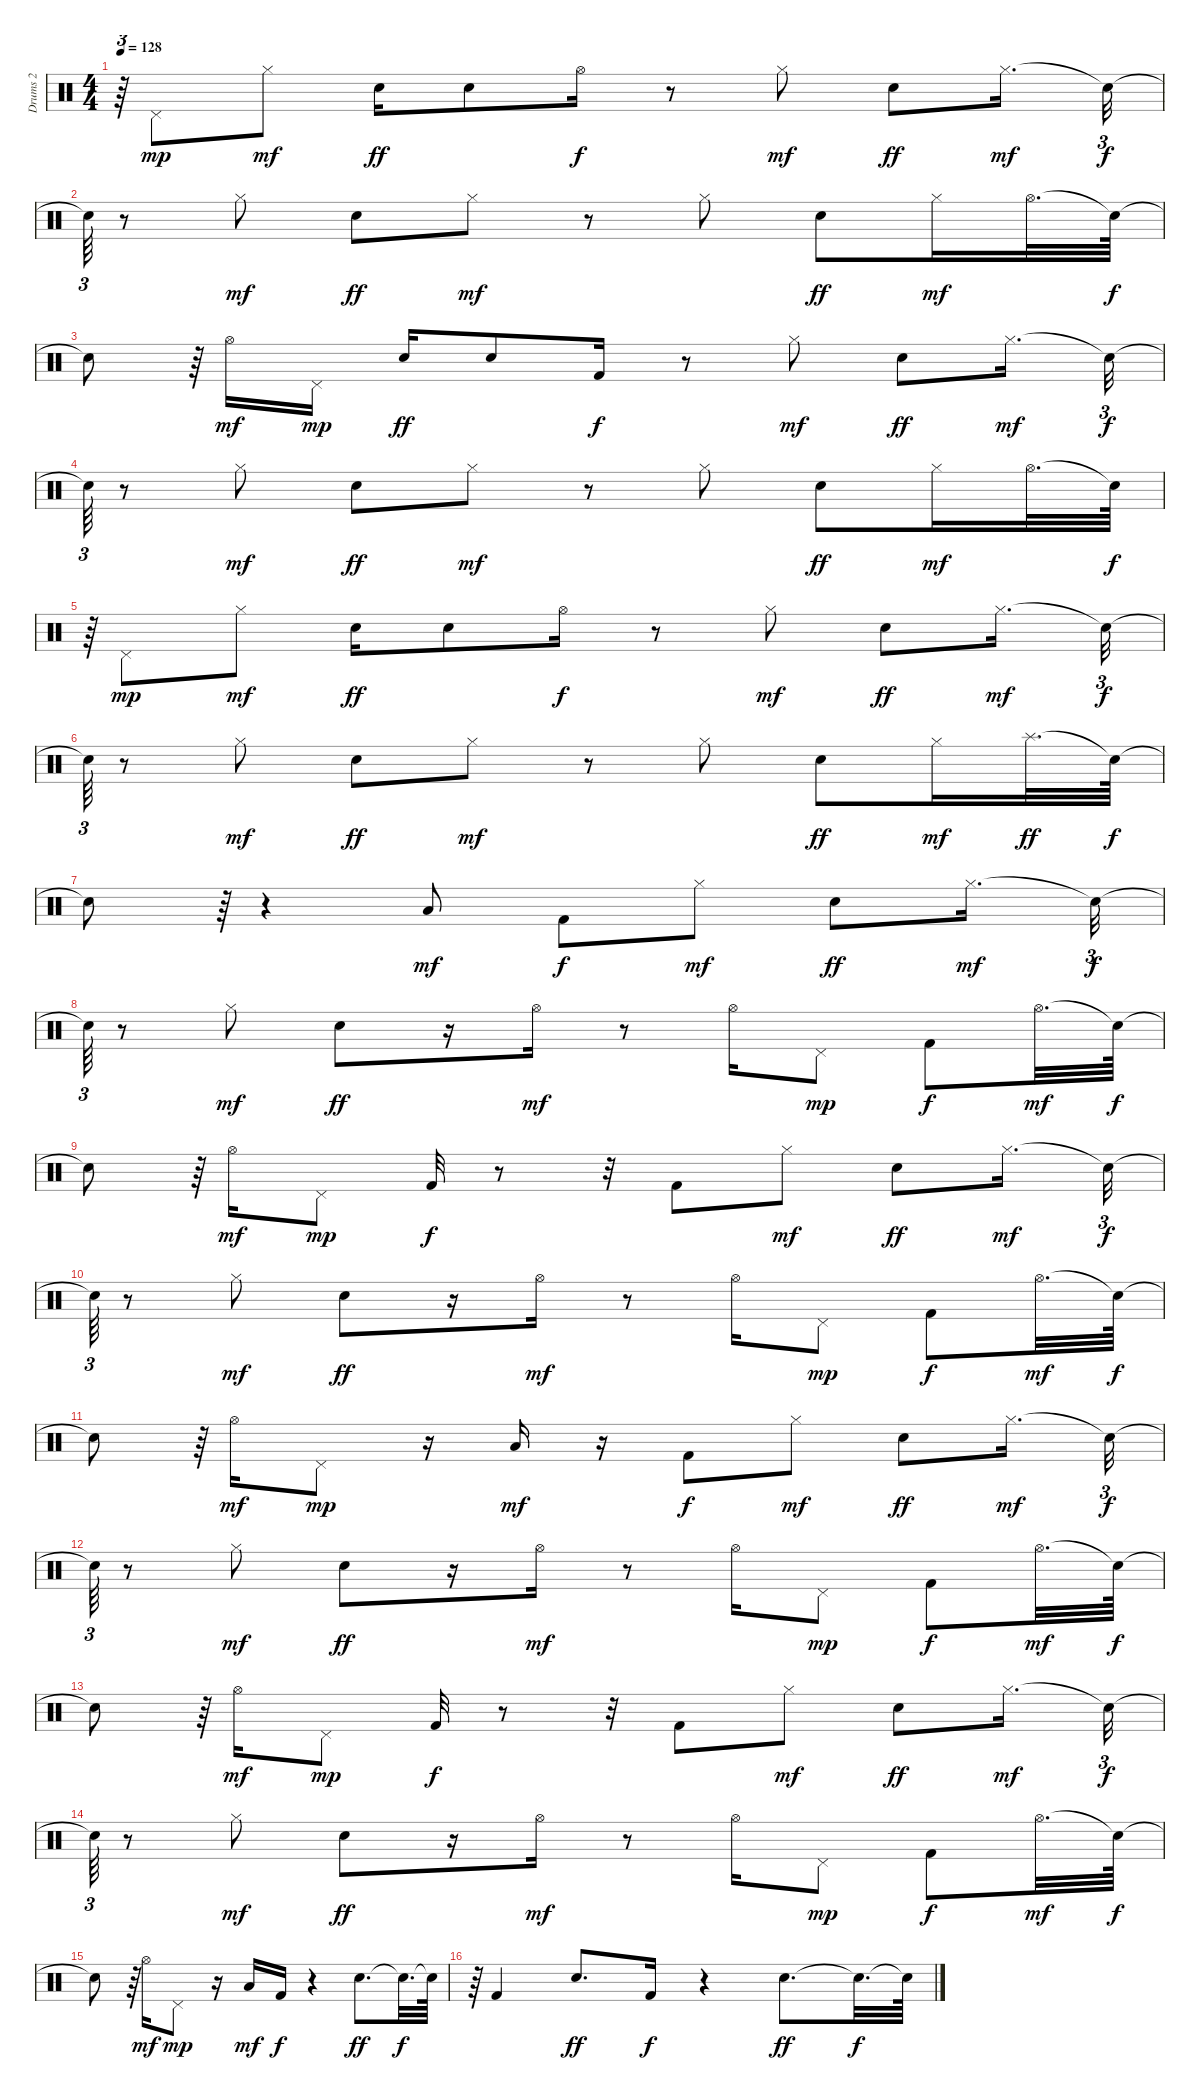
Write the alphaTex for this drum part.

\track ("Drums 2                             " "Drums 2   ") {instrument percussion}
\staff {score}
\articulation defaults
\ts (4 4)
\tempo 128
\clef neutral
\ks c
r.64{tu (3 2) dy f} "Pedal Hi-Hat (hit)".8{dy mp} "Hi-Hat (closed)".8{dy mf} "Snare (hit) 2".16{dy ff} "Snare (hit) 2".8 "Hi-Hat (open)".16{dy f} r.8 "Hi-Hat (closed)".8{dy mf} "Snare (hit) 2".8{dy ff} "Hi-Hat (closed)".16{d dy mf} "Snare (hit)"{t}.32{tu (3 2) dy f} |
"Snare (hit)"{t}.64{tu (3 2)} r.8 "Hi-Hat (closed)".8{dy mf} "Snare (hit) 2".8{dy ff} "Hi-Hat (closed)".8{dy mf} r.8 "Hi-Hat (closed)".8 "Snare (hit) 2".8{dy ff} "Hi-Hat (closed)".16{dy mf} "Hi-Hat (open)".32{d} "Snare (hit)"{t}.64{dy f} |
"Snare (hit)"{t}.8 r.64{tu (3 2)} "Hi-Hat (open)".16{dy mf} "Pedal Hi-Hat (hit)".16{dy mp} "Snare (hit) 2".16{dy ff} "Snare (hit) 2".8 "Kick (hit) 2".16{dy f} r.8 "Hi-Hat (closed)".8{dy mf} "Snare (hit) 2".8{dy ff} "Hi-Hat (closed)".16{d dy mf} "Snare (hit)"{t}.32{tu (3 2) dy f} |
"Snare (hit)"{t}.64{tu (3 2)} r.8 "Hi-Hat (closed)".8{dy mf} "Snare (hit) 2".8{dy ff} "Hi-Hat (closed)".8{dy mf} r.8 "Hi-Hat (closed)".8 "Snare (hit) 2".8{dy ff} "Hi-Hat (closed)".16{dy mf} "Hi-Hat (open)".32{d} "Snare (hit)"{t}.64{dy f} |
r.64{tu (3 2)} "Pedal Hi-Hat (hit)".8{dy mp} "Hi-Hat (closed)".8{dy mf} "Snare (hit) 2".16{dy ff} "Snare (hit) 2".8 "Hi-Hat (open)".16{dy f} r.8 "Hi-Hat (closed)".8{dy mf} "Snare (hit) 2".8{dy ff} "Hi-Hat (closed)".16{d dy mf} "Snare (hit)"{t}.32{tu (3 2) dy f} |
"Snare (hit)"{t}.64{tu (3 2)} r.8 "Hi-Hat (closed)".8{dy mf} "Snare (hit) 2".8{dy ff} "Hi-Hat (closed)".8{dy mf} r.8 "Hi-Hat (closed)".8 "Snare (hit) 2".8{dy ff} "Hi-Hat (closed)".16{dy mf} "Splash (hit)".32{d dy ff} "Snare (hit)"{t}.64{dy f} |
"Snare (hit)"{t}.8 r.64{tu (3 2)} r.4 "Low Tom (hit)".8{dy mf} "Kick (hit) 2".8{dy f} "Hi-Hat (closed)".8{dy mf} "Snare (hit) 2".8{dy ff} "Hi-Hat (closed)".16{d dy mf} "Snare (hit)"{t}.32{tu (3 2) dy f} |
"Snare (hit)"{t}.64{tu (3 2)} r.8 "Hi-Hat (closed)".8{dy mf} "Snare (hit) 2".8{dy ff} r.16 "Hi-Hat (open)".16{dy mf} r.8 "Hi-Hat (open)".16 "Pedal Hi-Hat (hit)".8{dy mp} "Kick (hit) 2".8{dy f} "Hi-Hat (open)".32{d dy mf} "Snare (hit)"{t}.64{dy f} |
"Snare (hit)"{t}.8 r.64{tu (3 2)} "Hi-Hat (open)".16{dy mf} "Pedal Hi-Hat (hit)".8{dy mp} "Kick (hit) 2".32{dy f} r.8 r.32 "Kick (hit) 2".8 "Hi-Hat (closed)".8{dy mf} "Snare (hit) 2".8{dy ff} "Hi-Hat (closed)".16{d dy mf} "Snare (hit)"{t}.32{tu (3 2) dy f} |
"Snare (hit)"{t}.64{tu (3 2)} r.8 "Hi-Hat (closed)".8{dy mf} "Snare (hit) 2".8{dy ff} r.16 "Hi-Hat (open)".16{dy mf} r.8 "Hi-Hat (open)".16 "Pedal Hi-Hat (hit)".8{dy mp} "Kick (hit) 2".8{dy f} "Hi-Hat (open)".32{d dy mf} "Snare (hit)"{t}.64{dy f} |
"Snare (hit)"{t}.8 r.64{tu (3 2)} "Hi-Hat (open)".16{dy mf} "Pedal Hi-Hat (hit)".8{dy mp} r.16 "Low Tom (hit)".16{dy mf} r.16 "Kick (hit) 2".8{dy f} "Hi-Hat (closed)".8{dy mf} "Snare (hit) 2".8{dy ff} "Hi-Hat (closed)".16{d dy mf} "Snare (hit)"{t}.32{tu (3 2) dy f} |
"Snare (hit)"{t}.64{tu (3 2)} r.8 "Hi-Hat (closed)".8{dy mf} "Snare (hit) 2".8{dy ff} r.16 "Hi-Hat (open)".16{dy mf} r.8 "Hi-Hat (open)".16 "Pedal Hi-Hat (hit)".8{dy mp} "Kick (hit) 2".8{dy f} "Hi-Hat (open)".32{d dy mf} "Snare (hit)"{t}.64{dy f} |
"Snare (hit)"{t}.8 r.64{tu (3 2)} "Hi-Hat (open)".16{dy mf} "Pedal Hi-Hat (hit)".8{dy mp} "Kick (hit) 2".32{dy f} r.8 r.32 "Kick (hit) 2".8 "Hi-Hat (closed)".8{dy mf} "Snare (hit) 2".8{dy ff} "Hi-Hat (closed)".16{d dy mf} "Snare (hit)"{t}.32{tu (3 2) dy f} |
"Snare (hit)"{t}.64{tu (3 2)} r.8 "Hi-Hat (closed)".8{dy mf} "Snare (hit) 2".8{dy ff} r.16 "Hi-Hat (open)".16{dy mf} r.8 "Hi-Hat (open)".16 "Pedal Hi-Hat (hit)".8{dy mp} "Kick (hit) 2".8{dy f} "Hi-Hat (open)".32{d dy mf} "Snare (hit)"{t}.64{dy f} |
"Snare (hit)"{t}.8 r.64{tu (3 2)} "Hi-Hat (open)".16{dy mf} "Pedal Hi-Hat (hit)".8{dy mp} r.16 "Low Tom (hit)".16{dy mf} "Kick (hit) 2".16{dy f} r.4 "Snare (hit) 2".8{d dy ff} "Snare (hit)"{t}.32{d dy f} "Snare (hit)"{t}.64 |
r.64{tu (3 2)} "Kick (hit) 2".4 "Snare (hit) 2".8{d dy ff} "Kick (hit) 2".16{dy f} r.4 "Snare (hit) 2".8{d dy ff} "Snare (hit)"{t}.32{d dy f} "Snare (hit)"{t}.64
